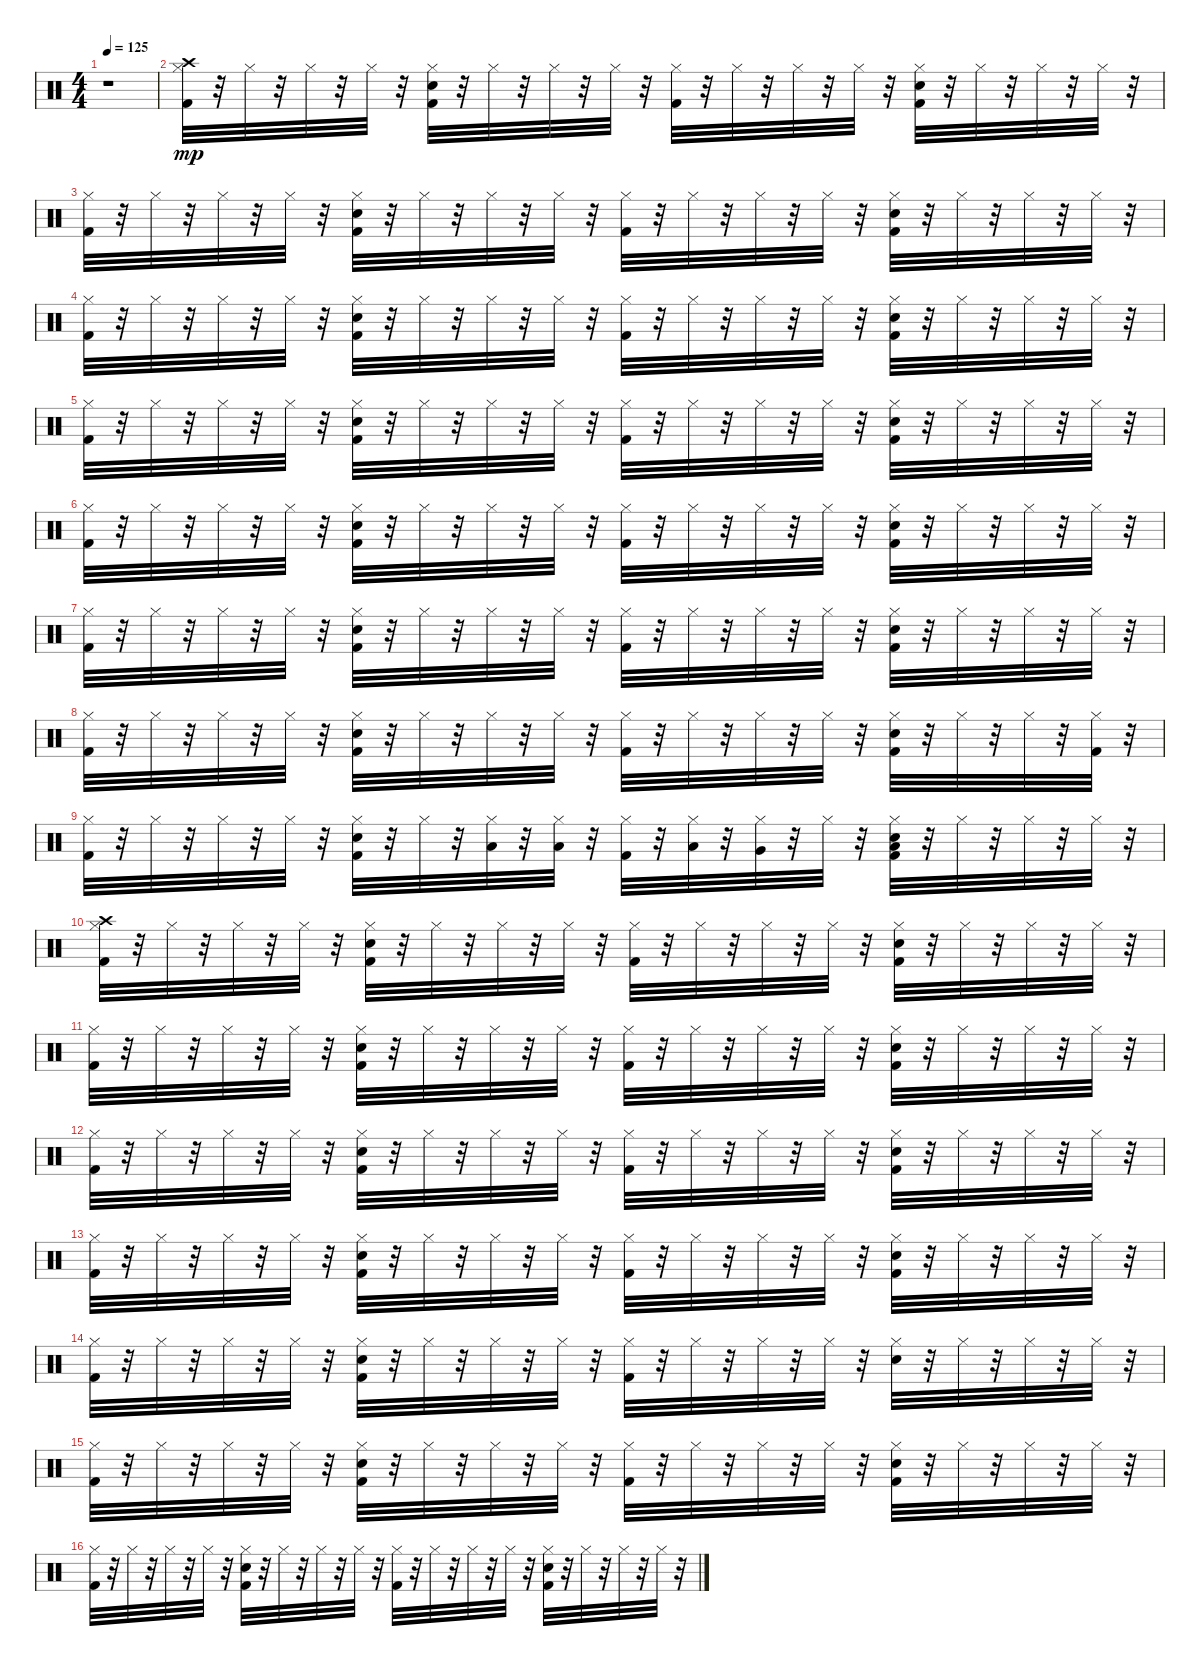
\track "" {instrument percussion}
\staff {score}
\articulation defaults
\ts (4 4)
\tempo 125
\clef neutral
\ks c
r.1{dy mp} |
("Hi-Hat (closed)" "Kick (hit) 2" "Crash high (hit)").32 r.32 "Hi-Hat (closed)".32 r.32 "Hi-Hat (closed)".32 r.32 "Hi-Hat (closed)".32 r.32 ("Kick (hit) 2" "Hi-Hat (closed)" "Snare (hit) 2").32 r.32 "Hi-Hat (closed)".32 r.32 "Hi-Hat (closed)".32 r.32 "Hi-Hat (closed)".32 r.32 ("Hi-Hat (closed)" "Kick (hit) 2").32 r.32 "Hi-Hat (closed)".32 r.32 "Hi-Hat (closed)".32 r.32 "Hi-Hat (closed)".32 r.32 ("Kick (hit) 2" "Hi-Hat (closed)" "Snare (hit) 2").32 r.32 "Hi-Hat (closed)".32 r.32 "Hi-Hat (closed)".32 r.32 "Hi-Hat (closed)".32 r.32 |
("Kick (hit) 2" "Hi-Hat (closed)").32 r.32 "Hi-Hat (closed)".32 r.32 "Hi-Hat (closed)".32 r.32 "Hi-Hat (closed)".32 r.32 ("Kick (hit) 2" "Snare (hit) 2" "Hi-Hat (closed)").32 r.32 "Hi-Hat (closed)".32 r.32 "Hi-Hat (closed)".32 r.32 "Hi-Hat (closed)".32 r.32 ("Kick (hit) 2" "Hi-Hat (closed)").32 r.32 "Hi-Hat (closed)".32 r.32 "Hi-Hat (closed)".32 r.32 "Hi-Hat (closed)".32 r.32 ("Kick (hit) 2" "Snare (hit) 2" "Hi-Hat (closed)").32 r.32 "Hi-Hat (closed)".32 r.32 "Hi-Hat (closed)".32 r.32 "Hi-Hat (closed)".32 r.32 |
("Kick (hit) 2" "Hi-Hat (closed)").32 r.32 "Hi-Hat (closed)".32 r.32 "Hi-Hat (closed)".32 r.32 "Hi-Hat (closed)".32 r.32 ("Kick (hit) 2" "Snare (hit) 2" "Hi-Hat (closed)").32 r.32 "Hi-Hat (closed)".32 r.32 "Hi-Hat (closed)".32 r.32 "Hi-Hat (closed)".32 r.32 ("Kick (hit) 2" "Hi-Hat (closed)").32 r.32 "Hi-Hat (closed)".32 r.32 "Hi-Hat (closed)".32 r.32 "Hi-Hat (closed)".32 r.32 ("Kick (hit) 2" "Snare (hit) 2" "Hi-Hat (closed)").32 r.32 "Hi-Hat (closed)".32 r.32 "Hi-Hat (closed)".32 r.32 "Hi-Hat (closed)".32 r.32 |
("Kick (hit) 2" "Hi-Hat (closed)").32 r.32 "Hi-Hat (closed)".32 r.32 "Hi-Hat (closed)".32 r.32 "Hi-Hat (closed)".32 r.32 ("Kick (hit) 2" "Snare (hit) 2" "Hi-Hat (closed)").32 r.32 "Hi-Hat (closed)".32 r.32 "Hi-Hat (closed)".32 r.32 "Hi-Hat (closed)".32 r.32 ("Kick (hit) 2" "Hi-Hat (closed)").32 r.32 "Hi-Hat (closed)".32 r.32 "Hi-Hat (closed)".32 r.32 "Hi-Hat (closed)".32 r.32 ("Kick (hit) 2" "Snare (hit) 2" "Hi-Hat (closed)").32 r.32 "Hi-Hat (closed)".32 r.32 "Hi-Hat (closed)".32 r.32 "Hi-Hat (closed)".32 r.32 |
("Kick (hit) 2" "Hi-Hat (closed)").32 r.32 "Hi-Hat (closed)".32 r.32 "Hi-Hat (closed)".32 r.32 "Hi-Hat (closed)".32 r.32 ("Kick (hit) 2" "Snare (hit) 2" "Hi-Hat (closed)").32 r.32 "Hi-Hat (closed)".32 r.32 "Hi-Hat (closed)".32 r.32 "Hi-Hat (closed)".32 r.32 ("Kick (hit) 2" "Hi-Hat (closed)").32 r.32 "Hi-Hat (closed)".32 r.32 "Hi-Hat (closed)".32 r.32 "Hi-Hat (closed)".32 r.32 ("Kick (hit) 2" "Snare (hit) 2" "Hi-Hat (closed)").32 r.32 "Hi-Hat (closed)".32 r.32 "Hi-Hat (closed)".32 r.32 "Hi-Hat (closed)".32 r.32 |
("Kick (hit) 2" "Hi-Hat (closed)").32 r.32 "Hi-Hat (closed)".32 r.32 "Hi-Hat (closed)".32 r.32 "Hi-Hat (closed)".32 r.32 ("Kick (hit) 2" "Snare (hit) 2" "Hi-Hat (closed)").32 r.32 "Hi-Hat (closed)".32 r.32 "Hi-Hat (closed)".32 r.32 "Hi-Hat (closed)".32 r.32 ("Kick (hit) 2" "Hi-Hat (closed)").32 r.32 "Hi-Hat (closed)".32 r.32 "Hi-Hat (closed)".32 r.32 "Hi-Hat (closed)".32 r.32 ("Kick (hit) 2" "Snare (hit) 2" "Hi-Hat (closed)").32 r.32 "Hi-Hat (closed)".32 r.32 "Hi-Hat (closed)".32 r.32 "Hi-Hat (closed)".32 r.32 |
("Kick (hit) 2" "Hi-Hat (closed)").32 r.32 "Hi-Hat (closed)".32 r.32 "Hi-Hat (closed)".32 r.32 "Hi-Hat (closed)".32 r.32 ("Kick (hit) 2" "Snare (hit) 2" "Hi-Hat (closed)").32 r.32 "Hi-Hat (closed)".32 r.32 "Hi-Hat (closed)".32 r.32 "Hi-Hat (closed)".32 r.32 ("Kick (hit) 2" "Hi-Hat (closed)").32 r.32 "Hi-Hat (closed)".32 r.32 "Hi-Hat (closed)".32 r.32 "Hi-Hat (closed)".32 r.32 ("Kick (hit) 2" "Snare (hit) 2" "Hi-Hat (closed)").32 r.32 "Hi-Hat (closed)".32 r.32 "Hi-Hat (closed)".32 r.32 ("Kick (hit) 2" "Hi-Hat (closed)").32 r.32 |
("Kick (hit) 2" "Hi-Hat (closed)").32 r.32 "Hi-Hat (closed)".32 r.32 "Hi-Hat (closed)".32 r.32 "Hi-Hat (closed)".32 r.32 ("Kick (hit) 2" "Snare (hit) 2" "Hi-Hat (closed)").32 r.32 "Hi-Hat (closed)".32 r.32 ("Low Tom (hit)" "Hi-Hat (closed)").32 r.32 ("Low Tom (hit)" "Hi-Hat (closed)").32 r.32 ("Kick (hit) 2" "Hi-Hat (closed)").32 r.32 ("Low Tom (hit)" "Hi-Hat (closed)").32 r.32 ("Very Low Tom (hit)" "Hi-Hat (closed)").32 r.32 "Hi-Hat (closed)".32 r.32 ("Kick (hit) 2" "Low Floor Tom (hit)" "Snare (hit) 2" "Hi-Hat (closed)").32 r.32 "Hi-Hat (closed)".32 r.32 "Hi-Hat (closed)".32 r.32 "Hi-Hat (closed)".32 r.32 |
("Hi-Hat (closed)" "Kick (hit) 2" "Crash high (hit)").32 r.32 "Hi-Hat (closed)".32 r.32 "Hi-Hat (closed)".32 r.32 "Hi-Hat (closed)".32 r.32 ("Kick (hit) 2" "Hi-Hat (closed)" "Snare (hit) 2").32 r.32 "Hi-Hat (closed)".32 r.32 "Hi-Hat (closed)".32 r.32 "Hi-Hat (closed)".32 r.32 ("Hi-Hat (closed)" "Kick (hit) 2").32 r.32 "Hi-Hat (closed)".32 r.32 "Hi-Hat (closed)".32 r.32 "Hi-Hat (closed)".32 r.32 ("Kick (hit) 2" "Hi-Hat (closed)" "Snare (hit) 2").32 r.32 "Hi-Hat (closed)".32 r.32 "Hi-Hat (closed)".32 r.32 "Hi-Hat (closed)".32 r.32 |
("Kick (hit) 2" "Hi-Hat (closed)").32 r.32 "Hi-Hat (closed)".32 r.32 "Hi-Hat (closed)".32 r.32 "Hi-Hat (closed)".32 r.32 ("Kick (hit) 2" "Snare (hit) 2" "Hi-Hat (closed)").32 r.32 "Hi-Hat (closed)".32 r.32 "Hi-Hat (closed)".32 r.32 "Hi-Hat (closed)".32 r.32 ("Kick (hit) 2" "Hi-Hat (closed)").32 r.32 "Hi-Hat (closed)".32 r.32 "Hi-Hat (closed)".32 r.32 "Hi-Hat (closed)".32 r.32 ("Kick (hit) 2" "Snare (hit) 2" "Hi-Hat (closed)").32 r.32 "Hi-Hat (closed)".32 r.32 "Hi-Hat (closed)".32 r.32 "Hi-Hat (closed)".32 r.32 |
("Kick (hit) 2" "Hi-Hat (closed)").32 r.32 "Hi-Hat (closed)".32 r.32 "Hi-Hat (closed)".32 r.32 "Hi-Hat (closed)".32 r.32 ("Kick (hit) 2" "Snare (hit) 2" "Hi-Hat (closed)").32 r.32 "Hi-Hat (closed)".32 r.32 "Hi-Hat (closed)".32 r.32 "Hi-Hat (closed)".32 r.32 ("Kick (hit) 2" "Hi-Hat (closed)").32 r.32 "Hi-Hat (closed)".32 r.32 "Hi-Hat (closed)".32 r.32 "Hi-Hat (closed)".32 r.32 ("Kick (hit) 2" "Snare (hit) 2" "Hi-Hat (closed)").32 r.32 "Hi-Hat (closed)".32 r.32 "Hi-Hat (closed)".32 r.32 "Hi-Hat (closed)".32 r.32 |
("Kick (hit) 2" "Hi-Hat (closed)").32 r.32 "Hi-Hat (closed)".32 r.32 "Hi-Hat (closed)".32 r.32 "Hi-Hat (closed)".32 r.32 ("Kick (hit) 2" "Snare (hit) 2" "Hi-Hat (closed)").32 r.32 "Hi-Hat (closed)".32 r.32 "Hi-Hat (closed)".32 r.32 "Hi-Hat (closed)".32 r.32 ("Kick (hit) 2" "Hi-Hat (closed)").32 r.32 "Hi-Hat (closed)".32 r.32 "Hi-Hat (closed)".32 r.32 "Hi-Hat (closed)".32 r.32 ("Kick (hit) 2" "Snare (hit) 2" "Hi-Hat (closed)").32 r.32 "Hi-Hat (closed)".32 r.32 "Hi-Hat (closed)".32 r.32 "Hi-Hat (closed)".32 r.32 |
("Kick (hit) 2" "Hi-Hat (closed)").32 r.32 "Hi-Hat (closed)".32 r.32 "Hi-Hat (closed)".32 r.32 "Hi-Hat (closed)".32 r.32 ("Kick (hit) 2" "Snare (hit) 2" "Hi-Hat (closed)").32 r.32 "Hi-Hat (closed)".32 r.32 "Hi-Hat (closed)".32 r.32 "Hi-Hat (closed)".32 r.32 ("Kick (hit) 2" "Hi-Hat (closed)").32 r.32 "Hi-Hat (closed)".32 r.32 "Hi-Hat (closed)".32 r.32 "Hi-Hat (closed)".32 r.32 ("Snare (hit) 2" "Hi-Hat (closed)").32 r.32 "Hi-Hat (closed)".32 r.32 "Hi-Hat (closed)".32 r.32 "Hi-Hat (closed)".32 r.32 |
("Kick (hit) 2" "Hi-Hat (closed)").32 r.32 "Hi-Hat (closed)".32 r.32 "Hi-Hat (closed)".32 r.32 "Hi-Hat (closed)".32 r.32 ("Kick (hit) 2" "Snare (hit) 2" "Hi-Hat (closed)").32 r.32 "Hi-Hat (closed)".32 r.32 "Hi-Hat (closed)".32 r.32 "Hi-Hat (closed)".32 r.32 ("Kick (hit) 2" "Hi-Hat (closed)").32 r.32 "Hi-Hat (closed)".32 r.32 "Hi-Hat (closed)".32 r.32 "Hi-Hat (closed)".32 r.32 ("Kick (hit) 2" "Snare (hit) 2" "Hi-Hat (closed)").32 r.32 "Hi-Hat (closed)".32 r.32 "Hi-Hat (closed)".32 r.32 "Hi-Hat (closed)".32 r.32 |
("Kick (hit) 2" "Hi-Hat (closed)").32 r.32 "Hi-Hat (closed)".32 r.32 "Hi-Hat (closed)".32 r.32 "Hi-Hat (closed)".32 r.32 ("Kick (hit) 2" "Snare (hit) 2" "Hi-Hat (closed)").32 r.32 "Hi-Hat (closed)".32 r.32 "Hi-Hat (closed)".32 r.32 "Hi-Hat (closed)".32 r.32 ("Kick (hit) 2" "Hi-Hat (closed)").32 r.32 "Hi-Hat (closed)".32 r.32 "Hi-Hat (closed)".32 r.32 "Hi-Hat (closed)".32 r.32 ("Kick (hit) 2" "Snare (hit) 2" "Hi-Hat (closed)").32 r.32 "Hi-Hat (closed)".32 r.32 "Hi-Hat (closed)".32 r.32 "Hi-Hat (closed)".32 r.32
